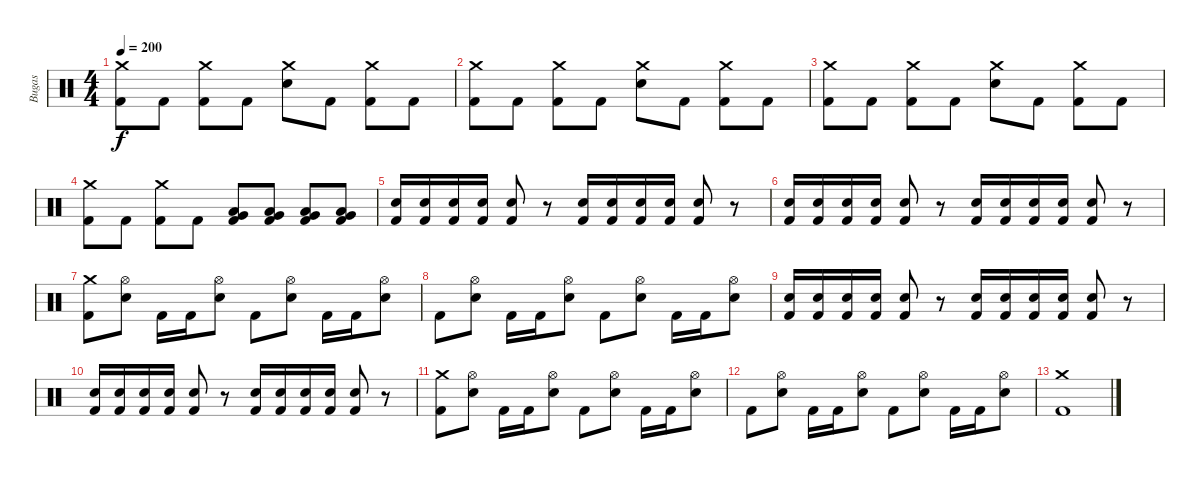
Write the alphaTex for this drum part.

\track ("Bugas" "Bugas") {instrument percussion}
\staff {score}
\articulation defaults
\ts (4 4)
\tempo 200
\clef neutral
\ks c
("Crash medium (hit)" "Kick (hit) 2").8{dy f} "Kick (hit) 2".8 ("Crash medium (hit)" "Kick (hit) 2").8 "Kick (hit) 2".8 ("Crash medium (hit)" "Electric Snare (hit)").8 "Kick (hit) 2".8 ("Crash medium (hit)" "Kick (hit) 2").8 "Kick (hit) 2".8 |
("Crash medium (hit)" "Kick (hit) 2").8 "Kick (hit) 2".8 ("Crash medium (hit)" "Kick (hit) 2").8 "Kick (hit) 2".8 ("Crash medium (hit)" "Electric Snare (hit)").8 "Kick (hit) 2".8 ("Crash medium (hit)" "Kick (hit) 2").8 "Kick (hit) 2".8 |
("Crash medium (hit)" "Kick (hit) 2").8 "Kick (hit) 2".8 ("Crash medium (hit)" "Kick (hit) 2").8 "Kick (hit) 2".8 ("Crash medium (hit)" "Electric Snare (hit)").8 "Kick (hit) 2".8 ("Crash medium (hit)" "Kick (hit) 2").8 "Kick (hit) 2".8 |
("Crash medium (hit)" "Kick (hit) 2").8 "Kick (hit) 2".8 ("Crash medium (hit)" "Kick (hit) 2").8 "Kick (hit) 2".8 ("Very Low Tom (hit)" "Low Tom (hit)" "Kick (hit) 2").8 ("Very Low Tom (hit)" "Low Tom (hit)" "Kick (hit) 2").8 ("Very Low Tom (hit)" "Low Tom (hit)" "Kick (hit) 2").8 ("Very Low Tom (hit)" "Low Tom (hit)" "Kick (hit) 2").8 |
("Electric Snare (hit)" "Kick (hit) 2").16 ("Electric Snare (hit)" "Kick (hit) 2").16 ("Electric Snare (hit)" "Kick (hit) 2").16 ("Electric Snare (hit)" "Kick (hit) 2").16 ("Electric Snare (hit)" "Kick (hit) 2").8 r.8 ("Electric Snare (hit)" "Kick (hit) 2").16 ("Electric Snare (hit)" "Kick (hit) 2").16 ("Electric Snare (hit)" "Kick (hit) 2").16 ("Electric Snare (hit)" "Kick (hit) 2").16 ("Electric Snare (hit)" "Kick (hit) 2").8 r.8 |
("Electric Snare (hit)" "Kick (hit) 2").16 ("Electric Snare (hit)" "Kick (hit) 2").16 ("Electric Snare (hit)" "Kick (hit) 2").16 ("Electric Snare (hit)" "Kick (hit) 2").16 ("Electric Snare (hit)" "Kick (hit) 2").8 r.8 ("Electric Snare (hit)" "Kick (hit) 2").16 ("Electric Snare (hit)" "Kick (hit) 2").16 ("Electric Snare (hit)" "Kick (hit) 2").16 ("Electric Snare (hit)" "Kick (hit) 2").16 ("Electric Snare (hit)" "Kick (hit) 2").8 r.8 |
("Crash medium (hit)" "Kick (hit) 2").8 ("Hi-Hat (open)" "Electric Snare (hit)").8 "Kick (hit) 2".16 "Kick (hit) 2".16 ("Hi-Hat (open)" "Electric Snare (hit)").8 "Kick (hit) 2".8 ("Hi-Hat (open)" "Electric Snare (hit)").8 "Kick (hit) 2".16 "Kick (hit) 2".16 ("Hi-Hat (open)" "Electric Snare (hit)").8 |
"Kick (hit) 2".8 ("Hi-Hat (open)" "Electric Snare (hit)").8 "Kick (hit) 2".16 "Kick (hit) 2".16 ("Hi-Hat (open)" "Electric Snare (hit)").8 "Kick (hit) 2".8 ("Hi-Hat (open)" "Electric Snare (hit)").8 "Kick (hit) 2".16 "Kick (hit) 2".16 ("Hi-Hat (open)" "Electric Snare (hit)").8 |
("Electric Snare (hit)" "Kick (hit) 2").16 ("Electric Snare (hit)" "Kick (hit) 2").16 ("Electric Snare (hit)" "Kick (hit) 2").16 ("Electric Snare (hit)" "Kick (hit) 2").16 ("Electric Snare (hit)" "Kick (hit) 2").8 r.8 ("Electric Snare (hit)" "Kick (hit) 2").16 ("Electric Snare (hit)" "Kick (hit) 2").16 ("Electric Snare (hit)" "Kick (hit) 2").16 ("Electric Snare (hit)" "Kick (hit) 2").16 ("Electric Snare (hit)" "Kick (hit) 2").8 r.8 |
("Electric Snare (hit)" "Kick (hit) 2").16 ("Electric Snare (hit)" "Kick (hit) 2").16 ("Electric Snare (hit)" "Kick (hit) 2").16 ("Electric Snare (hit)" "Kick (hit) 2").16 ("Electric Snare (hit)" "Kick (hit) 2").8 r.8 ("Electric Snare (hit)" "Kick (hit) 2").16 ("Electric Snare (hit)" "Kick (hit) 2").16 ("Electric Snare (hit)" "Kick (hit) 2").16 ("Electric Snare (hit)" "Kick (hit) 2").16 ("Electric Snare (hit)" "Kick (hit) 2").8 r.8 |
("Crash medium (hit)" "Kick (hit) 2").8 ("Hi-Hat (open)" "Electric Snare (hit)").8 "Kick (hit) 2".16 "Kick (hit) 2".16 ("Hi-Hat (open)" "Electric Snare (hit)").8 "Kick (hit) 2".8 ("Hi-Hat (open)" "Electric Snare (hit)").8 "Kick (hit) 2".16 "Kick (hit) 2".16 ("Hi-Hat (open)" "Electric Snare (hit)").8 |
"Kick (hit) 2".8 ("Hi-Hat (open)" "Electric Snare (hit)").8 "Kick (hit) 2".16 "Kick (hit) 2".16 ("Hi-Hat (open)" "Electric Snare (hit)").8 "Kick (hit) 2".8 ("Hi-Hat (open)" "Electric Snare (hit)").8 "Kick (hit) 2".16 "Kick (hit) 2".16 ("Hi-Hat (open)" "Electric Snare (hit)").8 |
("Crash medium (hit)" "Kick (hit) 2").1
